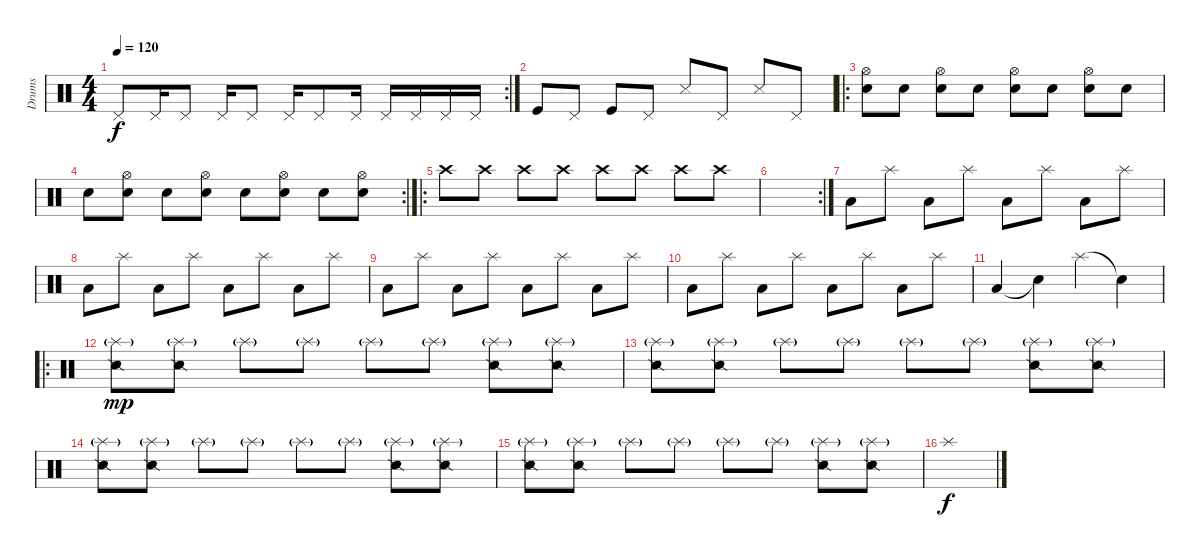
\track ("Drums" "Drums") {instrument percussion}
\staff {score}
\articulation defaults
\rc 2
\ts (4 4)
\tempo 120
\clef neutral
\ks c "Pedal Hi-Hat (hit)".8{dy f} "Pedal Hi-Hat (hit)".16 "Pedal Hi-Hat (hit)".8 "Pedal Hi-Hat (hit)".16 "Pedal Hi-Hat (hit)".8 "Pedal Hi-Hat (hit)".16 "Pedal Hi-Hat (hit)".8 "Pedal Hi-Hat (hit)".16 "Pedal Hi-Hat (hit)".16 "Pedal Hi-Hat (hit)".16 "Pedal Hi-Hat (hit)".16 "Pedal Hi-Hat (hit)".16
|
"Kick (hit)".8 "Pedal Hi-Hat (hit)".8 "Kick (hit)".8 "Pedal Hi-Hat (hit)".8 "Snare (side stick) 3".8 "Pedal Hi-Hat (hit)".8 "Snare (side stick) 3".8 "Pedal Hi-Hat (hit)".8 |
\ro
("Electric Snare (hit)" "Hi-Hat (open)").8 "Electric Snare (hit)".8 ("Electric Snare (hit)" "Hi-Hat (open)").8 "Electric Snare (hit)".8 ("Electric Snare (hit)" "Hi-Hat (open)").8 "Electric Snare (hit)".8 ("Electric Snare (hit)" "Hi-Hat (open)").8 "Electric Snare (hit)".8 |
\rc 2 "Electric Snare (hit)".8
("Electric Snare (hit)" "Hi-Hat (open)").8 "Electric Snare (hit)".8 ("Electric Snare (hit)" "Hi-Hat (open)").8 "Electric Snare (hit)".8 ("Electric Snare (hit)" "Hi-Hat (open)").8 "Electric Snare (hit)".8 ("Electric Snare (hit)" "Hi-Hat (open)").8 |
\ro "Crash high (hit)".8 "Crash high (hit)".8 "Crash high (hit)".8 "Crash high (hit)".8 "Crash high (hit)".8 "Crash high (hit)".8 "Crash high (hit)".8 "Crash high (hit)".8
|
\rc 2
|
"Low Tom (hit)".8 "Splash (hit)".8 "Low Tom (hit)".8 "Splash (hit)".8 "Low Tom (hit)".8 "Splash (hit)".8 "Low Tom (hit)".8 "Splash (hit)".8 |
"Low Tom (hit)".8 "Splash (hit)".8 "Low Tom (hit)".8 "Splash (hit)".8 "Low Tom (hit)".8 "Splash (hit)".8 "Low Tom (hit)".8 "Splash (hit)".8 |
"Low Tom (hit)".8 "Splash (hit)".8 "Low Tom (hit)".8 "Splash (hit)".8 "Low Tom (hit)".8 "Splash (hit)".8 "Low Tom (hit)".8 "Splash (hit)".8 |
"Low Tom (hit)".8 "Splash (hit)".8 "Low Tom (hit)".8 "Splash (hit)".8 "Low Tom (hit)".8 "Splash (hit)".8 "Low Tom (hit)".8 "Splash (hit)".8 |
"Low Tom (hit)".4 "Snare (hit)"{t}.4 "Splash (hit)".4 "Snare (hit)"{t}.4 |
\ro
("Snare (side stick) 2" "Splash (hit)"{g}).8{dy mp} ("Snare (side stick) 2" "Splash (hit)"{g}).8 "Splash (hit)"{g}.8 "Splash (hit)"{g}.8 "Splash (hit)"{g}.8 "Splash (hit)"{g}.8 ("Snare (side stick) 2" "Splash (hit)"{g}).8 ("Snare (side stick) 2" "Splash (hit)"{g}).8 |
("Snare (side stick) 2" "Splash (hit)"{g}).8 ("Snare (side stick) 2" "Splash (hit)"{g}).8 "Splash (hit)"{g}.8 "Splash (hit)"{g}.8 "Splash (hit)"{g}.8 "Splash (hit)"{g}.8 ("Snare (side stick) 2" "Splash (hit)"{g}).8 ("Snare (side stick) 2" "Splash (hit)"{g}).8 |
("Snare (side stick) 2" "Splash (hit)"{g}).8 ("Snare (side stick) 2" "Splash (hit)"{g}).8 "Splash (hit)"{g}.8 "Splash (hit)"{g}.8 "Splash (hit)"{g}.8 "Splash (hit)"{g}.8 ("Snare (side stick) 2" "Splash (hit)"{g}).8 ("Snare (side stick) 2" "Splash (hit)"{g}).8 |
("Snare (side stick) 2" "Splash (hit)"{g}).8 ("Snare (side stick) 2" "Splash (hit)"{g}).8 "Splash (hit)"{g}.8 "Splash (hit)"{g}.8 "Splash (hit)"{g}.8 "Splash (hit)"{g}.8 ("Snare (side stick) 2" "Splash (hit)"{g}).8 ("Snare (side stick) 2" "Splash (hit)"{g}).8 |
"Splash (hit)".1{dy f}
